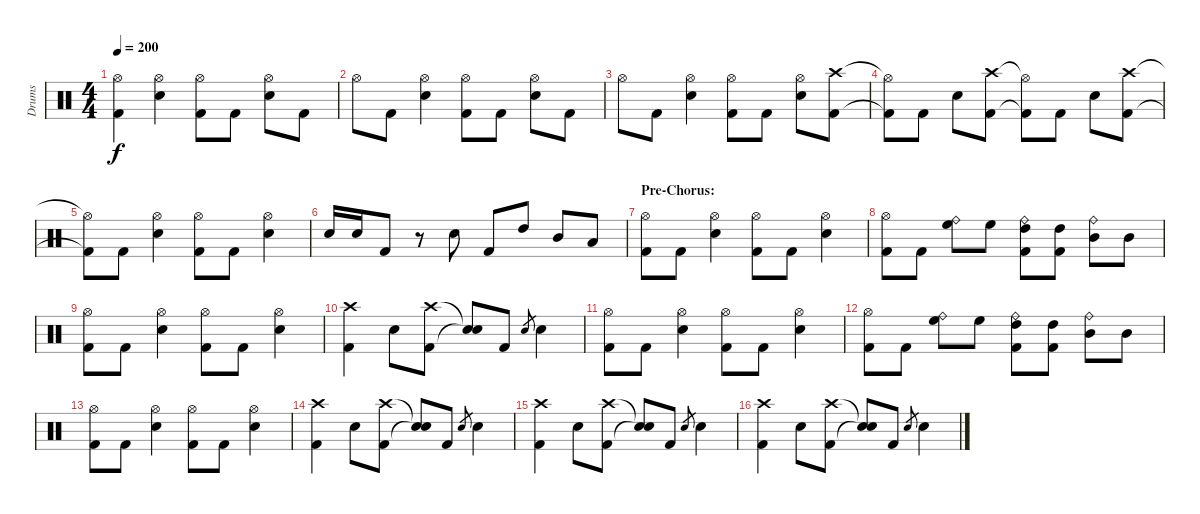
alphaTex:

\track ("Drums" "Drums") {instrument percussion}
\staff {score}
\articulation defaults
\ts (4 4)
\tempo 200
\clef neutral
\ks c
("Hi-Hat (open)" "Kick (hit) 2").4{dy f} ("Hi-Hat (open)" "Electric Snare (hit)").4 ("Hi-Hat (open)" "Kick (hit) 2").8 "Kick (hit) 2".8 ("Hi-Hat (open)" "Electric Snare (hit)").8 "Kick (hit) 2".8 |
"Hi-Hat (open)".8 "Kick (hit) 2".8 ("Hi-Hat (open)" "Electric Snare (hit)").4 ("Hi-Hat (open)" "Kick (hit) 2").8 "Kick (hit) 2".8 ("Hi-Hat (open)" "Electric Snare (hit)").8 "Kick (hit) 2".8 |
"Hi-Hat (open)".8 "Kick (hit) 2".8 ("Hi-Hat (open)" "Electric Snare (hit)").4 ("Hi-Hat (open)" "Kick (hit) 2").8 "Kick (hit) 2".8 ("Hi-Hat (open)" "Electric Snare (hit)").8 ("Crash high (hit)" "Kick (hit) 2").8 |
("Hi-Hat (open)"{t} "Kick (hit) 2"{t}).8 "Kick (hit) 2".8 "Electric Snare (hit)".8 ("Crash high (hit)" "Kick (hit) 2").8 ("Hi-Hat (open)"{t} "Kick (hit) 2"{t}).8 "Kick (hit) 2".8 "Electric Snare (hit)".8 ("Crash high (hit)" "Kick (hit) 2").8 |
("Hi-Hat (open)"{t} "Kick (hit) 2"{t}).8 "Kick (hit) 2".8 ("Hi-Hat (open)" "Electric Snare (hit)").4 ("Hi-Hat (open)" "Kick (hit) 2").8 "Kick (hit) 2".8 ("Hi-Hat (open)" "Electric Snare (hit)").4 |
"Electric Snare (hit)".16 "Electric Snare (hit)".16 "Kick (hit) 2".8 r.8 "Electric Snare (hit)".8 "Kick (hit) 2".8 "High Tom (hit)".8 "Mid Tom (hit)".8 "Low Tom (hit)".8 |
\section ("" "Pre-Chorus:")
("Hi-Hat (open)" "Kick (hit) 2").8 "Kick (hit) 2".8 ("Hi-Hat (open)" "Electric Snare (hit)").4 ("Hi-Hat (open)" "Kick (hit) 2").8 "Kick (hit) 2".8 ("Hi-Hat (open)" "Electric Snare (hit)").4 |
("Hi-Hat (open)" "Kick (hit) 2").8 "Kick (hit) 2".8 ("Ride (bell)" "High Floor Tom (hit)").8 "High Floor Tom (hit)".8 ("Ride (bell)" "High Tom (hit)" "Kick (hit) 2").8 ("High Tom (hit)" "Kick (hit) 2").8 ("Ride (bell)" "Mid Tom (hit)").8 "Mid Tom (hit)".8 |
("Hi-Hat (open)" "Kick (hit) 2").8 "Kick (hit) 2".8 ("Hi-Hat (open)" "Electric Snare (hit)").4 ("Hi-Hat (open)" "Kick (hit) 2").8 "Kick (hit) 2".8 ("Hi-Hat (open)" "Electric Snare (hit)").4 |
("Crash high (hit)" "Kick (hit) 2").4 "Electric Snare (hit)".8 ("Crash high (hit)" "Kick (hit) 2").8 ("Snare (hit)"{t} "Snare (hit)"{t}).8 "Kick (hit) 2".8 "Electric Snare (hit)".8{gr} "Electric Snare (hit)".4 |
("Hi-Hat (open)" "Kick (hit) 2").8 "Kick (hit) 2".8 ("Hi-Hat (open)" "Electric Snare (hit)").4 ("Hi-Hat (open)" "Kick (hit) 2").8 "Kick (hit) 2".8 ("Hi-Hat (open)" "Electric Snare (hit)").4 |
("Hi-Hat (open)" "Kick (hit) 2").8 "Kick (hit) 2".8 ("Ride (bell)" "High Floor Tom (hit)").8 "High Floor Tom (hit)".8 ("Ride (bell)" "High Tom (hit)" "Kick (hit) 2").8 ("High Tom (hit)" "Kick (hit) 2").8 ("Ride (bell)" "Mid Tom (hit)").8 "Mid Tom (hit)".8 |
("Hi-Hat (open)" "Kick (hit) 2").8 "Kick (hit) 2".8 ("Hi-Hat (open)" "Electric Snare (hit)").4 ("Hi-Hat (open)" "Kick (hit) 2").8 "Kick (hit) 2".8 ("Hi-Hat (open)" "Electric Snare (hit)").4 |
("Crash high (hit)" "Kick (hit) 2").4 "Electric Snare (hit)".8 ("Crash high (hit)" "Kick (hit) 2").8 ("Snare (hit)"{t} "Snare (hit)"{t}).8 "Kick (hit) 2".8 "Electric Snare (hit)".8{gr} "Electric Snare (hit)".4 |
("Crash high (hit)" "Kick (hit) 2").4 "Electric Snare (hit)".8 ("Crash high (hit)" "Kick (hit) 2").8 ("Snare (hit)"{t} "Snare (hit)"{t}).8 "Kick (hit) 2".8 "Electric Snare (hit)".8{gr} "Electric Snare (hit)".4 |
("Crash high (hit)" "Kick (hit) 2").4 "Electric Snare (hit)".8 ("Crash high (hit)" "Kick (hit) 2").8 ("Snare (hit)"{t} "Snare (hit)"{t}).8 "Kick (hit) 2".8 "Electric Snare (hit)".8{gr} "Electric Snare (hit)".4
